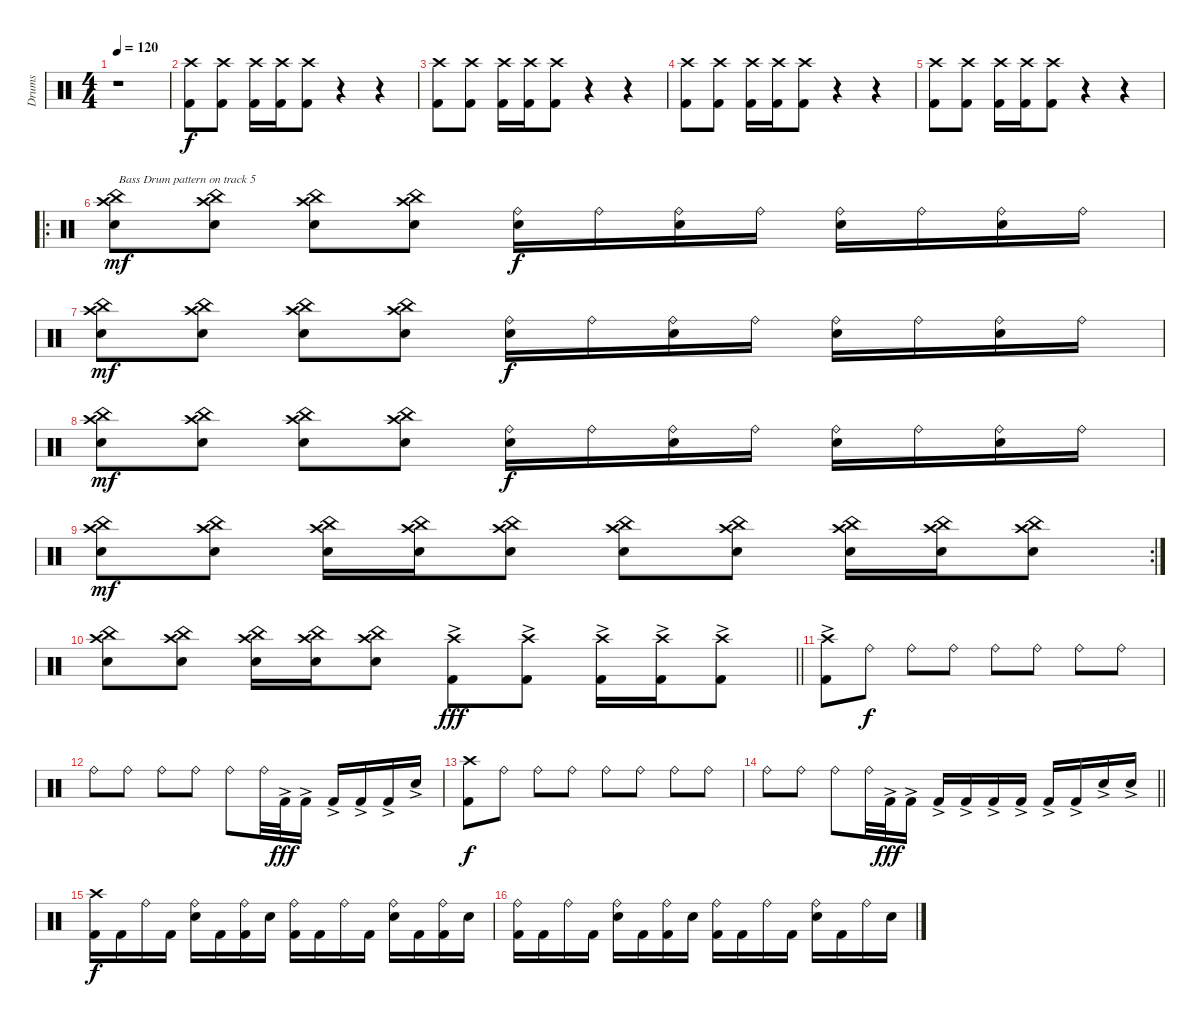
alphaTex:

\track ("Drums" "Drums") {instrument percussion}
\staff {score}
\articulation defaults
\ts (4 4)
\tempo 120
\clef neutral
\ks c
r.1{dy f} |
("Crash high (hit)" "Kick (hit) 2").8 ("Crash high (hit)" "Kick (hit) 2").8 ("Crash high (hit)" "Kick (hit) 2").16 ("Crash high (hit)" "Kick (hit) 2").16 ("Crash high (hit)" "Kick (hit) 2").8 r.4{volume 0} r.4{volume 16} |
("Crash high (hit)" "Kick (hit) 2").8 ("Crash high (hit)" "Kick (hit) 2").8 ("Crash high (hit)" "Kick (hit) 2").16 ("Crash high (hit)" "Kick (hit) 2").16 ("Crash high (hit)" "Kick (hit) 2").8 r.4{volume 0} r.4{volume 16} |
("Crash high (hit)" "Kick (hit) 2").8 ("Crash high (hit)" "Kick (hit) 2").8 ("Crash high (hit)" "Kick (hit) 2").16 ("Crash high (hit)" "Kick (hit) 2").16 ("Crash high (hit)" "Kick (hit) 2").8 r.4{volume 0} r.4{volume 16} |
("Crash high (hit)" "Kick (hit) 2").8 ("Crash high (hit)" "Kick (hit) 2").8 ("Crash high (hit)" "Kick (hit) 2").16 ("Crash high (hit)" "Kick (hit) 2").16 ("Crash high (hit)" "Kick (hit) 2").8 r.4{volume 0} r.4{volume 16} |
\ro
("Crash high (hit)" "China (hit)" "Snare (hit) 2").8{txt "Bass Drum pattern on track 5" dy mf} ("Crash high (hit)" "China (hit)" "Snare (hit) 2").8 ("Crash high (hit)" "China (hit)" "Snare (hit) 2").8 ("Crash high (hit)" "China (hit)" "Snare (hit) 2").8 ("Ride (bell)" "Snare (hit) 2").16{dy f} "Ride (bell)".16 ("Ride (bell)" "Snare (hit) 2").16 "Ride (bell)".16 ("Ride (bell)" "Snare (hit) 2").16 "Ride (bell)".16 ("Ride (bell)" "Snare (hit) 2").16 "Ride (bell)".16 |
("Crash high (hit)" "China (hit)" "Snare (hit) 2").8{dy mf} ("Crash high (hit)" "China (hit)" "Snare (hit) 2").8 ("Crash high (hit)" "China (hit)" "Snare (hit) 2").8 ("Crash high (hit)" "China (hit)" "Snare (hit) 2").8 ("Ride (bell)" "Snare (hit) 2").16{dy f} "Ride (bell)".16 ("Ride (bell)" "Snare (hit) 2").16 "Ride (bell)".16 ("Ride (bell)" "Snare (hit) 2").16 "Ride (bell)".16 ("Ride (bell)" "Snare (hit) 2").16 "Ride (bell)".16 |
("Crash high (hit)" "China (hit)" "Snare (hit) 2").8{dy mf} ("Crash high (hit)" "China (hit)" "Snare (hit) 2").8 ("Crash high (hit)" "China (hit)" "Snare (hit) 2").8 ("Crash high (hit)" "China (hit)" "Snare (hit) 2").8 ("Ride (bell)" "Snare (hit) 2").16{dy f} "Ride (bell)".16 ("Ride (bell)" "Snare (hit) 2").16 "Ride (bell)".16 ("Ride (bell)" "Snare (hit) 2").16 "Ride (bell)".16 ("Ride (bell)" "Snare (hit) 2").16 "Ride (bell)".16 |
\rc 2
("Crash high (hit)" "China (hit)" "Snare (hit) 2").8{dy mf} ("Crash high (hit)" "China (hit)" "Snare (hit) 2").8 ("Crash high (hit)" "China (hit)" "Snare (hit) 2").16 ("Crash high (hit)" "China (hit)" "Snare (hit) 2").16 ("Crash high (hit)" "China (hit)" "Snare (hit) 2").8 ("Crash high (hit)" "China (hit)" "Snare (hit) 2").8 ("Crash high (hit)" "China (hit)" "Snare (hit) 2").8 ("Crash high (hit)" "China (hit)" "Snare (hit) 2").16 ("Crash high (hit)" "China (hit)" "Snare (hit) 2").16 ("Crash high (hit)" "China (hit)" "Snare (hit) 2").8 |
\barLineRight lightlight
("Crash high (hit)" "China (hit)" "Snare (hit) 2").8 ("Crash high (hit)" "China (hit)" "Snare (hit) 2").8 ("Crash high (hit)" "China (hit)" "Snare (hit) 2").16 ("Crash high (hit)" "China (hit)" "Snare (hit) 2").16 ("Crash high (hit)" "China (hit)" "Snare (hit) 2").8 ("Crash high (hit)" "Kick (hit) 2"{ac}).8{dy fff} ("Crash high (hit)" "Kick (hit) 2"{ac}).8 ("Crash high (hit)" "Kick (hit) 2"{ac}).16 ("Crash high (hit)" "Kick (hit) 2"{ac}).16 ("Crash high (hit)" "Kick (hit) 2"{ac}).8 |
("Crash high (hit)" "Kick (hit) 2"{ac}).8 "Ride (bell)".8{dy f} "Ride (bell)".8 "Ride (bell)".8 "Ride (bell)".8 "Ride (bell)".8 "Ride (bell)".8 "Ride (bell)".8 |
"Ride (bell)".8 "Ride (bell)".8 "Ride (bell)".8 "Ride (bell)".8 "Ride (bell)".8 "Ride (bell)".32 "Kick (hit) 2"{ac}.32{dy fff} "Kick (hit) 2"{ac}.16 "Kick (hit) 2"{ac}.16 "Kick (hit) 2"{ac}.16 "Kick (hit) 2"{ac}.16 "Snare (hit) 2"{ac}.16 |
("Crash high (hit)" "Kick (hit) 2").8{dy f} "Ride (bell)".8 "Ride (bell)".8 "Ride (bell)".8 "Ride (bell)".8 "Ride (bell)".8 "Ride (bell)".8 "Ride (bell)".8 |
\barLineRight lightlight "Ride (bell)".8 "Ride (bell)".8 "Ride (bell)".8 "Ride (bell)".32 "Kick (hit) 2"{ac}.32{dy fff} "Kick (hit) 2"{ac}.16 "Kick (hit) 2"{ac}.16 "Kick (hit) 2"{ac}.16 "Kick (hit) 2"{ac}.16 "Kick (hit) 2"{ac}.16 "Kick (hit) 2"{ac}.16 "Kick (hit) 2"{ac}.16 "Snare (hit) 2"{ac}.16 "Snare (hit) 2"{ac}.16
|
("Crash high (hit)" "Kick (hit) 2").16{dy f} "Kick (hit) 2".16 "Ride (bell)".16 "Kick (hit) 2".16 ("Ride (bell)" "Snare (hit) 2").16 "Kick (hit) 2".16 ("Ride (bell)" "Kick (hit) 2").16 "Snare (hit) 2".16 ("Ride (bell)" "Kick (hit) 2").16 "Kick (hit) 2".16 "Ride (bell)".16 "Kick (hit) 2".16 ("Ride (bell)" "Snare (hit) 2").16 "Kick (hit) 2".16 ("Ride (bell)" "Kick (hit) 2").16 "Snare (hit) 2".16 |
("Ride (bell)" "Kick (hit) 2").16 "Kick (hit) 2".16 "Ride (bell)".16 "Kick (hit) 2".16 ("Ride (bell)" "Snare (hit) 2").16 "Kick (hit) 2".16 ("Ride (bell)" "Kick (hit) 2").16 "Snare (hit) 2".16 ("Ride (bell)" "Kick (hit) 2").16 "Kick (hit) 2".16 "Ride (bell)".16 "Kick (hit) 2".16 ("Ride (bell)" "Snare (hit) 2").16 "Kick (hit) 2".16 "Ride (bell)".16 "Snare (hit) 2".16
